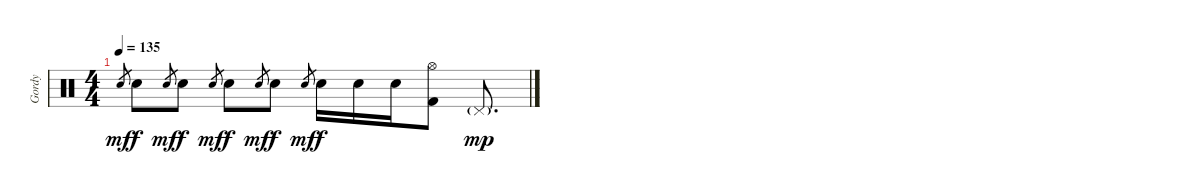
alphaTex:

\track ("Gordy" "Gordy") {instrument percussion}
\staff {score}
\articulation defaults
\ts (4 4)
\tempo 135
\clef neutral
\ks c "Electric Snare (hit)".8{gr dy mf} "Electric Snare (hit)".8{dy f} "Electric Snare (hit)".8{gr dy mf} "Electric Snare (hit)".8{dy f} "Electric Snare (hit)".8{gr dy mf} "Electric Snare (hit)".8{dy f} "Electric Snare (hit)".8{gr dy mf} "Electric Snare (hit)".8{dy f} "Electric Snare (hit)".8{gr dy mf} "Electric Snare (hit)".16{dy f} "Electric Snare (hit)".16 "Electric Snare (hit)".16
("Hi-Hat (open)" "Kick (hit) 2").8 "Pedal Hi-Hat (hit)"{g}.8{d dy mp}
